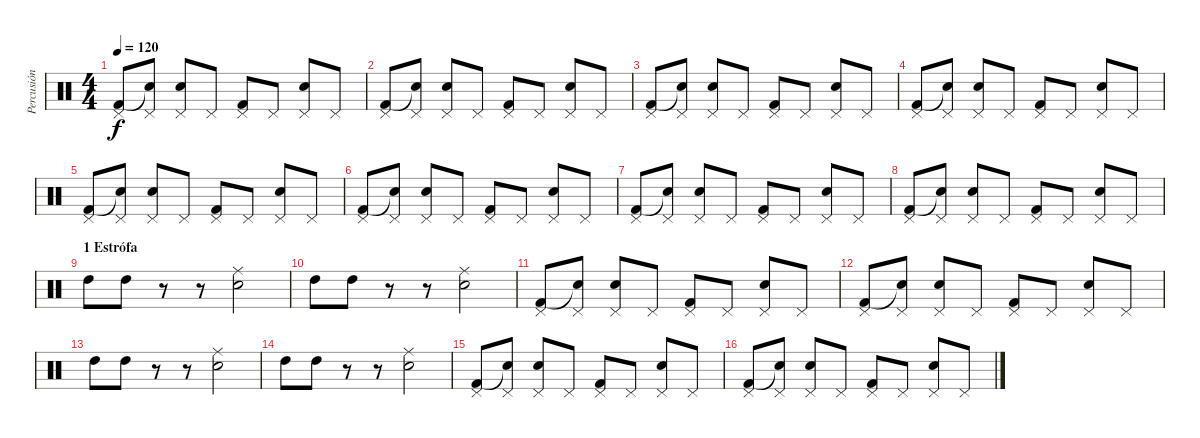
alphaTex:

\track ("Percusión" "Percusión") {instrument percussion}
\staff {score}
\articulation defaults
\ts (4 4)
\tempo 120
\clef neutral
\ks c
("Pedal Hi-Hat (hit)" "Kick (hit) 2").8{dy f} ("Pedal Hi-Hat (hit)" "Snare (hit)"{t}).8 ("Pedal Hi-Hat (hit)" "Snare (hit) 2").8 "Pedal Hi-Hat (hit)".8 ("Pedal Hi-Hat (hit)" "Kick (hit) 2").8 "Pedal Hi-Hat (hit)".8 ("Pedal Hi-Hat (hit)" "Snare (hit) 2").8 "Pedal Hi-Hat (hit)".8 |
("Pedal Hi-Hat (hit)" "Kick (hit) 2").8 ("Pedal Hi-Hat (hit)" "Snare (hit)"{t}).8 ("Pedal Hi-Hat (hit)" "Snare (hit) 2").8 "Pedal Hi-Hat (hit)".8 ("Pedal Hi-Hat (hit)" "Kick (hit) 2").8 "Pedal Hi-Hat (hit)".8 ("Pedal Hi-Hat (hit)" "Snare (hit) 2").8 "Pedal Hi-Hat (hit)".8 |
("Pedal Hi-Hat (hit)" "Kick (hit) 2").8 ("Pedal Hi-Hat (hit)" "Snare (hit)"{t}).8 ("Pedal Hi-Hat (hit)" "Snare (hit) 2").8 "Pedal Hi-Hat (hit)".8 ("Pedal Hi-Hat (hit)" "Kick (hit) 2").8 "Pedal Hi-Hat (hit)".8 ("Pedal Hi-Hat (hit)" "Snare (hit) 2").8 "Pedal Hi-Hat (hit)".8 |
("Pedal Hi-Hat (hit)" "Kick (hit) 2").8 ("Pedal Hi-Hat (hit)" "Snare (hit)"{t}).8 ("Pedal Hi-Hat (hit)" "Snare (hit) 2").8 "Pedal Hi-Hat (hit)".8 ("Pedal Hi-Hat (hit)" "Kick (hit) 2").8 "Pedal Hi-Hat (hit)".8 ("Pedal Hi-Hat (hit)" "Snare (hit) 2").8 "Pedal Hi-Hat (hit)".8 |
("Pedal Hi-Hat (hit)" "Kick (hit) 2").8 ("Pedal Hi-Hat (hit)" "Snare (hit)"{t}).8 ("Pedal Hi-Hat (hit)" "Snare (hit) 2").8 "Pedal Hi-Hat (hit)".8 ("Pedal Hi-Hat (hit)" "Kick (hit) 2").8 "Pedal Hi-Hat (hit)".8 ("Pedal Hi-Hat (hit)" "Snare (hit) 2").8 "Pedal Hi-Hat (hit)".8 |
("Pedal Hi-Hat (hit)" "Kick (hit) 2").8 ("Pedal Hi-Hat (hit)" "Snare (hit)"{t}).8 ("Pedal Hi-Hat (hit)" "Snare (hit) 2").8 "Pedal Hi-Hat (hit)".8 ("Pedal Hi-Hat (hit)" "Kick (hit) 2").8 "Pedal Hi-Hat (hit)".8 ("Pedal Hi-Hat (hit)" "Snare (hit) 2").8 "Pedal Hi-Hat (hit)".8 |
("Pedal Hi-Hat (hit)" "Kick (hit) 2").8 ("Pedal Hi-Hat (hit)" "Snare (hit)"{t}).8 ("Pedal Hi-Hat (hit)" "Snare (hit) 2").8 "Pedal Hi-Hat (hit)".8 ("Pedal Hi-Hat (hit)" "Kick (hit) 2").8 "Pedal Hi-Hat (hit)".8 ("Pedal Hi-Hat (hit)" "Snare (hit) 2").8 "Pedal Hi-Hat (hit)".8 |
("Pedal Hi-Hat (hit)" "Kick (hit) 2").8 ("Pedal Hi-Hat (hit)" "Snare (hit)"{t}).8 ("Pedal Hi-Hat (hit)" "Snare (hit) 2").8 "Pedal Hi-Hat (hit)".8 ("Pedal Hi-Hat (hit)" "Kick (hit) 2").8 "Pedal Hi-Hat (hit)".8 ("Pedal Hi-Hat (hit)" "Snare (hit) 2").8 "Pedal Hi-Hat (hit)".8 |
\section ("" "1 Estrófa")
"High Tom (hit)".8 "High Tom (hit)".8 r.8 r.8 ("Snare (hit) 2" "Ride (middle)").2 |
"High Tom (hit)".8 "High Tom (hit)".8 r.8 r.8 ("Snare (hit) 2" "Ride (middle)").2 |
("Pedal Hi-Hat (hit)" "Kick (hit) 2").8 ("Pedal Hi-Hat (hit)" "Snare (hit)"{t}).8 ("Pedal Hi-Hat (hit)" "Snare (hit) 2").8 "Pedal Hi-Hat (hit)".8 ("Pedal Hi-Hat (hit)" "Kick (hit) 2").8 "Pedal Hi-Hat (hit)".8 ("Pedal Hi-Hat (hit)" "Snare (hit) 2").8 "Pedal Hi-Hat (hit)".8 |
("Pedal Hi-Hat (hit)" "Kick (hit) 2").8 ("Pedal Hi-Hat (hit)" "Snare (hit)"{t}).8 ("Pedal Hi-Hat (hit)" "Snare (hit) 2").8 "Pedal Hi-Hat (hit)".8 ("Pedal Hi-Hat (hit)" "Kick (hit) 2").8 "Pedal Hi-Hat (hit)".8 ("Pedal Hi-Hat (hit)" "Snare (hit) 2").8 "Pedal Hi-Hat (hit)".8 |
"High Tom (hit)".8 "High Tom (hit)".8 r.8 r.8 ("Snare (hit) 2" "Ride (middle)").2 |
"High Tom (hit)".8 "High Tom (hit)".8 r.8 r.8 ("Snare (hit) 2" "Ride (middle)").2 |
("Pedal Hi-Hat (hit)" "Kick (hit) 2").8 ("Pedal Hi-Hat (hit)" "Snare (hit)"{t}).8 ("Pedal Hi-Hat (hit)" "Snare (hit) 2").8 "Pedal Hi-Hat (hit)".8 ("Pedal Hi-Hat (hit)" "Kick (hit) 2").8 "Pedal Hi-Hat (hit)".8 ("Pedal Hi-Hat (hit)" "Snare (hit) 2").8 "Pedal Hi-Hat (hit)".8 |
("Pedal Hi-Hat (hit)" "Kick (hit) 2").8 ("Pedal Hi-Hat (hit)" "Snare (hit)"{t}).8 ("Pedal Hi-Hat (hit)" "Snare (hit) 2").8 "Pedal Hi-Hat (hit)".8 ("Pedal Hi-Hat (hit)" "Kick (hit) 2").8 "Pedal Hi-Hat (hit)".8 ("Pedal Hi-Hat (hit)" "Snare (hit) 2").8 "Pedal Hi-Hat (hit)".8
